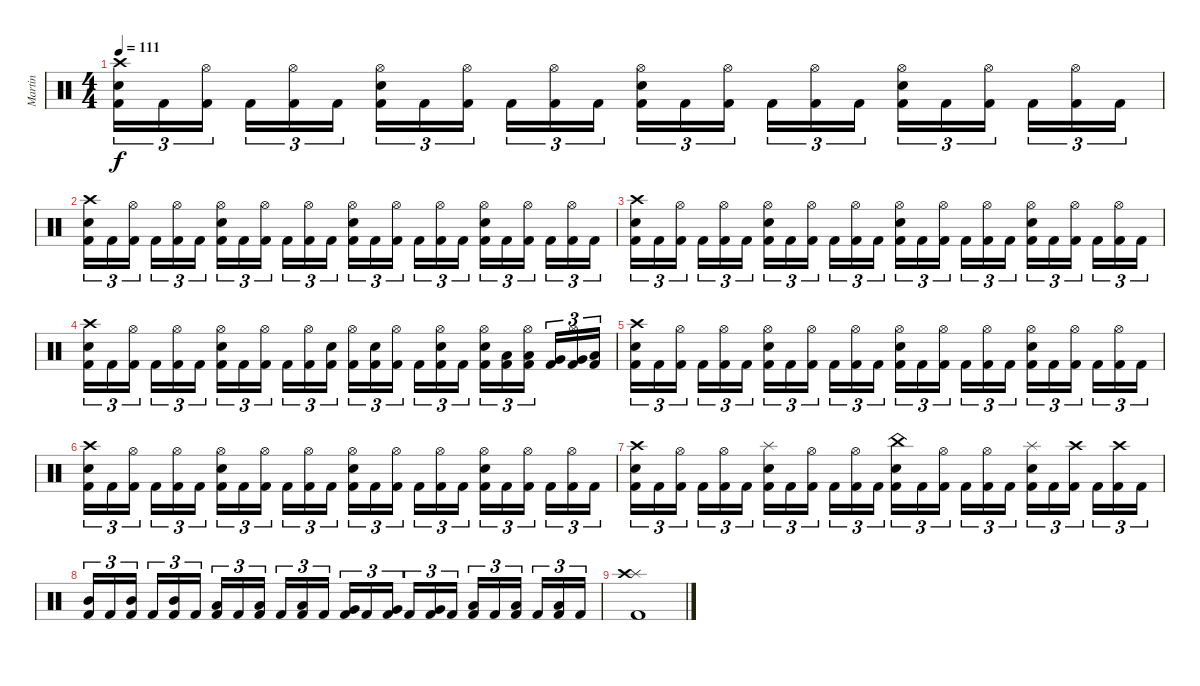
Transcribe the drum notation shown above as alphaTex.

\track ("Martin" "Martin") {instrument percussion}
\staff {score}
\articulation defaults
\ts (4 4)
\tempo 111
\clef neutral
\ks c
("Kick (hit) 2" "Electric Snare (hit)" "Crash high (hit)").16{tu (3 2) dy f} "Kick (hit) 2".16{tu (3 2)} ("Kick (hit) 2" "Hi-Hat (open)").16{tu (3 2)} "Kick (hit) 2".16{tu (3 2)} ("Kick (hit) 2" "Hi-Hat (open)").16{tu (3 2)} "Kick (hit) 2".16{tu (3 2)} ("Kick (hit) 2" "Electric Snare (hit)" "Hi-Hat (open)").16{tu (3 2)} "Kick (hit) 2".16{tu (3 2)} ("Kick (hit) 2" "Hi-Hat (open)").16{tu (3 2)} "Kick (hit) 2".16{tu (3 2)} ("Kick (hit) 2" "Hi-Hat (open)").16{tu (3 2)} "Kick (hit) 2".16{tu (3 2)} ("Kick (hit) 2" "Electric Snare (hit)" "Hi-Hat (open)").16{tu (3 2)} "Kick (hit) 2".16{tu (3 2)} ("Kick (hit) 2" "Hi-Hat (open)").16{tu (3 2)} "Kick (hit) 2".16{tu (3 2)} ("Kick (hit) 2" "Hi-Hat (open)").16{tu (3 2)} "Kick (hit) 2".16{tu (3 2)} ("Kick (hit) 2" "Electric Snare (hit)" "Hi-Hat (open)").16{tu (3 2)} "Kick (hit) 2".16{tu (3 2)} ("Kick (hit) 2" "Hi-Hat (open)").16{tu (3 2)} "Kick (hit) 2".16{tu (3 2)} ("Kick (hit) 2" "Hi-Hat (open)").16{tu (3 2)} "Kick (hit) 2".16{tu (3 2)} |
("Kick (hit) 2" "Electric Snare (hit)" "Crash high (hit)").16{tu (3 2)} "Kick (hit) 2".16{tu (3 2)} ("Kick (hit) 2" "Hi-Hat (open)").16{tu (3 2)} "Kick (hit) 2".16{tu (3 2)} ("Kick (hit) 2" "Hi-Hat (open)").16{tu (3 2)} "Kick (hit) 2".16{tu (3 2)} ("Kick (hit) 2" "Electric Snare (hit)" "Hi-Hat (open)").16{tu (3 2)} "Kick (hit) 2".16{tu (3 2)} ("Kick (hit) 2" "Hi-Hat (open)").16{tu (3 2)} "Kick (hit) 2".16{tu (3 2)} ("Kick (hit) 2" "Hi-Hat (open)").16{tu (3 2)} "Kick (hit) 2".16{tu (3 2)} ("Kick (hit) 2" "Electric Snare (hit)" "Hi-Hat (open)").16{tu (3 2)} "Kick (hit) 2".16{tu (3 2)} ("Kick (hit) 2" "Hi-Hat (open)").16{tu (3 2)} "Kick (hit) 2".16{tu (3 2)} ("Kick (hit) 2" "Hi-Hat (open)").16{tu (3 2)} "Kick (hit) 2".16{tu (3 2)} ("Kick (hit) 2" "Electric Snare (hit)" "Hi-Hat (open)").16{tu (3 2)} "Kick (hit) 2".16{tu (3 2)} ("Kick (hit) 2" "Hi-Hat (open)").16{tu (3 2)} "Kick (hit) 2".16{tu (3 2)} ("Kick (hit) 2" "Hi-Hat (open)").16{tu (3 2)} "Kick (hit) 2".16{tu (3 2)} |
("Kick (hit) 2" "Electric Snare (hit)" "Crash high (hit)").16{tu (3 2)} "Kick (hit) 2".16{tu (3 2)} ("Kick (hit) 2" "Hi-Hat (open)").16{tu (3 2)} "Kick (hit) 2".16{tu (3 2)} ("Kick (hit) 2" "Hi-Hat (open)").16{tu (3 2)} "Kick (hit) 2".16{tu (3 2)} ("Kick (hit) 2" "Electric Snare (hit)" "Hi-Hat (open)").16{tu (3 2)} "Kick (hit) 2".16{tu (3 2)} ("Kick (hit) 2" "Hi-Hat (open)").16{tu (3 2)} "Kick (hit) 2".16{tu (3 2)} ("Kick (hit) 2" "Hi-Hat (open)").16{tu (3 2)} "Kick (hit) 2".16{tu (3 2)} ("Kick (hit) 2" "Electric Snare (hit)" "Hi-Hat (open)").16{tu (3 2)} "Kick (hit) 2".16{tu (3 2)} ("Kick (hit) 2" "Hi-Hat (open)").16{tu (3 2)} "Kick (hit) 2".16{tu (3 2)} ("Kick (hit) 2" "Hi-Hat (open)").16{tu (3 2)} "Kick (hit) 2".16{tu (3 2)} ("Kick (hit) 2" "Electric Snare (hit)" "Hi-Hat (open)").16{tu (3 2)} "Kick (hit) 2".16{tu (3 2)} ("Kick (hit) 2" "Hi-Hat (open)").16{tu (3 2)} "Kick (hit) 2".16{tu (3 2)} ("Kick (hit) 2" "Hi-Hat (open)").16{tu (3 2)} "Kick (hit) 2".16{tu (3 2)} |
("Kick (hit) 2" "Electric Snare (hit)" "Crash high (hit)").16{tu (3 2)} "Kick (hit) 2".16{tu (3 2)} ("Kick (hit) 2" "Hi-Hat (open)").16{tu (3 2)} "Kick (hit) 2".16{tu (3 2)} ("Kick (hit) 2" "Hi-Hat (open)").16{tu (3 2)} "Kick (hit) 2".16{tu (3 2)} ("Kick (hit) 2" "Electric Snare (hit)" "Hi-Hat (open)").16{tu (3 2)} "Kick (hit) 2".16{tu (3 2)} ("Kick (hit) 2" "Hi-Hat (open)").16{tu (3 2)} "Kick (hit) 2".16{tu (3 2)} ("Kick (hit) 2" "Hi-Hat (open)").16{tu (3 2)} ("Kick (hit) 2" "Electric Snare (hit)").16{tu (3 2)} ("Kick (hit) 2" "Hi-Hat (open)").16{tu (3 2)} ("Kick (hit) 2" "Electric Snare (hit)").16{tu (3 2)} ("Kick (hit) 2" "Hi-Hat (open)").16{tu (3 2)} "Kick (hit) 2".16{tu (3 2)} ("Kick (hit) 2" "Electric Snare (hit)" "Hi-Hat (open)").16{tu (3 2)} "Kick (hit) 2".16{tu (3 2)} ("Kick (hit) 2" "Electric Snare (hit)" "Hi-Hat (open)").16{tu (3 2)} ("Kick (hit) 2" "Low Tom (hit)").16{tu (3 2)} ("Kick (hit) 2" "Low Tom (hit)" "Hi-Hat (open)").16{tu (3 2)} ("Kick (hit) 2" "Very Low Tom (hit)").16{tu (3 2)} ("Kick (hit) 2" "Very Low Tom (hit)" "Hi-Hat (open)").16{tu (3 2)} ("Kick (hit) 2" "Low Floor Tom (hit)").16{tu (3 2)} |
("Kick (hit) 2" "Electric Snare (hit)" "Crash high (hit)").16{tu (3 2)} "Kick (hit) 2".16{tu (3 2)} ("Kick (hit) 2" "Hi-Hat (open)").16{tu (3 2)} "Kick (hit) 2".16{tu (3 2)} ("Kick (hit) 2" "Hi-Hat (open)").16{tu (3 2)} "Kick (hit) 2".16{tu (3 2)} ("Kick (hit) 2" "Electric Snare (hit)" "Hi-Hat (open)").16{tu (3 2)} "Kick (hit) 2".16{tu (3 2)} ("Kick (hit) 2" "Hi-Hat (open)").16{tu (3 2)} "Kick (hit) 2".16{tu (3 2)} ("Kick (hit) 2" "Hi-Hat (open)").16{tu (3 2)} "Kick (hit) 2".16{tu (3 2)} ("Kick (hit) 2" "Electric Snare (hit)" "Hi-Hat (open)").16{tu (3 2)} "Kick (hit) 2".16{tu (3 2)} ("Kick (hit) 2" "Hi-Hat (open)").16{tu (3 2)} "Kick (hit) 2".16{tu (3 2)} ("Kick (hit) 2" "Hi-Hat (open)").16{tu (3 2)} "Kick (hit) 2".16{tu (3 2)} ("Kick (hit) 2" "Electric Snare (hit)" "Hi-Hat (open)").16{tu (3 2)} "Kick (hit) 2".16{tu (3 2)} ("Kick (hit) 2" "Hi-Hat (open)").16{tu (3 2)} "Kick (hit) 2".16{tu (3 2)} ("Kick (hit) 2" "Hi-Hat (open)").16{tu (3 2)} "Kick (hit) 2".16{tu (3 2)} |
("Kick (hit) 2" "Electric Snare (hit)" "Crash high (hit)").16{tu (3 2)} "Kick (hit) 2".16{tu (3 2)} ("Kick (hit) 2" "Hi-Hat (open)").16{tu (3 2)} "Kick (hit) 2".16{tu (3 2)} ("Kick (hit) 2" "Hi-Hat (open)").16{tu (3 2)} "Kick (hit) 2".16{tu (3 2)} ("Kick (hit) 2" "Electric Snare (hit)" "Hi-Hat (open)").16{tu (3 2)} "Kick (hit) 2".16{tu (3 2)} ("Kick (hit) 2" "Hi-Hat (open)").16{tu (3 2)} "Kick (hit) 2".16{tu (3 2)} ("Kick (hit) 2" "Hi-Hat (open)").16{tu (3 2)} "Kick (hit) 2".16{tu (3 2)} ("Kick (hit) 2" "Electric Snare (hit)" "Hi-Hat (open)").16{tu (3 2)} "Kick (hit) 2".16{tu (3 2)} ("Kick (hit) 2" "Hi-Hat (open)").16{tu (3 2)} "Kick (hit) 2".16{tu (3 2)} ("Kick (hit) 2" "Hi-Hat (open)").16{tu (3 2)} "Kick (hit) 2".16{tu (3 2)} ("Kick (hit) 2" "Electric Snare (hit)" "Hi-Hat (open)").16{tu (3 2)} "Kick (hit) 2".16{tu (3 2)} ("Kick (hit) 2" "Hi-Hat (open)").16{tu (3 2)} "Kick (hit) 2".16{tu (3 2)} ("Kick (hit) 2" "Hi-Hat (open)").16{tu (3 2)} "Kick (hit) 2".16{tu (3 2)} |
("Kick (hit) 2" "Electric Snare (hit)" "Crash high (hit)").16{tu (3 2)} "Kick (hit) 2".16{tu (3 2)} ("Kick (hit) 2" "Hi-Hat (open)").16{tu (3 2)} "Kick (hit) 2".16{tu (3 2)} ("Kick (hit) 2" "Hi-Hat (open)").16{tu (3 2)} "Kick (hit) 2".16{tu (3 2)} ("Kick (hit) 2" "Electric Snare (hit)" "Splash (hit)").16{tu (3 2)} "Kick (hit) 2".16{tu (3 2)} ("Kick (hit) 2" "Hi-Hat (open)").16{tu (3 2)} "Kick (hit) 2".16{tu (3 2)} ("Kick (hit) 2" "Hi-Hat (open)").16{tu (3 2)} "Kick (hit) 2".16{tu (3 2)} ("Kick (hit) 2" "Electric Snare (hit)" "China (hit)").16{tu (3 2)} "Kick (hit) 2".16{tu (3 2)} ("Kick (hit) 2" "Hi-Hat (open)").16{tu (3 2)} "Kick (hit) 2".16{tu (3 2)} ("Kick (hit) 2" "Hi-Hat (open)").16{tu (3 2)} "Kick (hit) 2".16{tu (3 2)} ("Kick (hit) 2" "Electric Snare (hit)" "Splash (hit)").16{tu (3 2)} "Kick (hit) 2".16{tu (3 2)} ("Kick (hit) 2" "Crash high (hit)").16{tu (3 2)} "Kick (hit) 2".16{tu (3 2)} ("Kick (hit) 2" "Crash high (hit)").16{tu (3 2)} "Kick (hit) 2".16{tu (3 2)} |
("Kick (hit) 2" "Mid Tom (hit)").16{tu (3 2)} "Kick (hit) 2".16{tu (3 2)} ("Kick (hit) 2" "Mid Tom (hit)").16{tu (3 2)} "Kick (hit) 2".16{tu (3 2)} ("Kick (hit) 2" "Mid Tom (hit)").16{tu (3 2)} "Kick (hit) 2".16{tu (3 2)} ("Kick (hit) 2" "Low Tom (hit)").16{tu (3 2)} "Kick (hit) 2".16{tu (3 2)} ("Kick (hit) 2" "Low Tom (hit)").16{tu (3 2)} "Kick (hit) 2".16{tu (3 2)} ("Kick (hit) 2" "Low Tom (hit)").16{tu (3 2)} "Kick (hit) 2".16{tu (3 2)} ("Kick (hit) 2" "Very Low Tom (hit)").16{tu (3 2)} "Kick (hit) 2".16{tu (3 2)} ("Kick (hit) 2" "Very Low Tom (hit)").16{tu (3 2)} "Kick (hit) 2".16{tu (3 2)} ("Kick (hit) 2" "Very Low Tom (hit)").16{tu (3 2)} "Kick (hit) 2".16{tu (3 2)} ("Kick (hit) 2" "Low Floor Tom (hit)").16{tu (3 2)} "Kick (hit) 2".16{tu (3 2)} ("Kick (hit) 2" "Low Floor Tom (hit)").16{tu (3 2)} "Kick (hit) 2".16{tu (3 2)} ("Kick (hit) 2" "Low Floor Tom (hit)").16{tu (3 2)} "Kick (hit) 2".16{tu (3 2)} |
("Kick (hit) 2" "Splash (hit)" "Crash high (hit)").1
